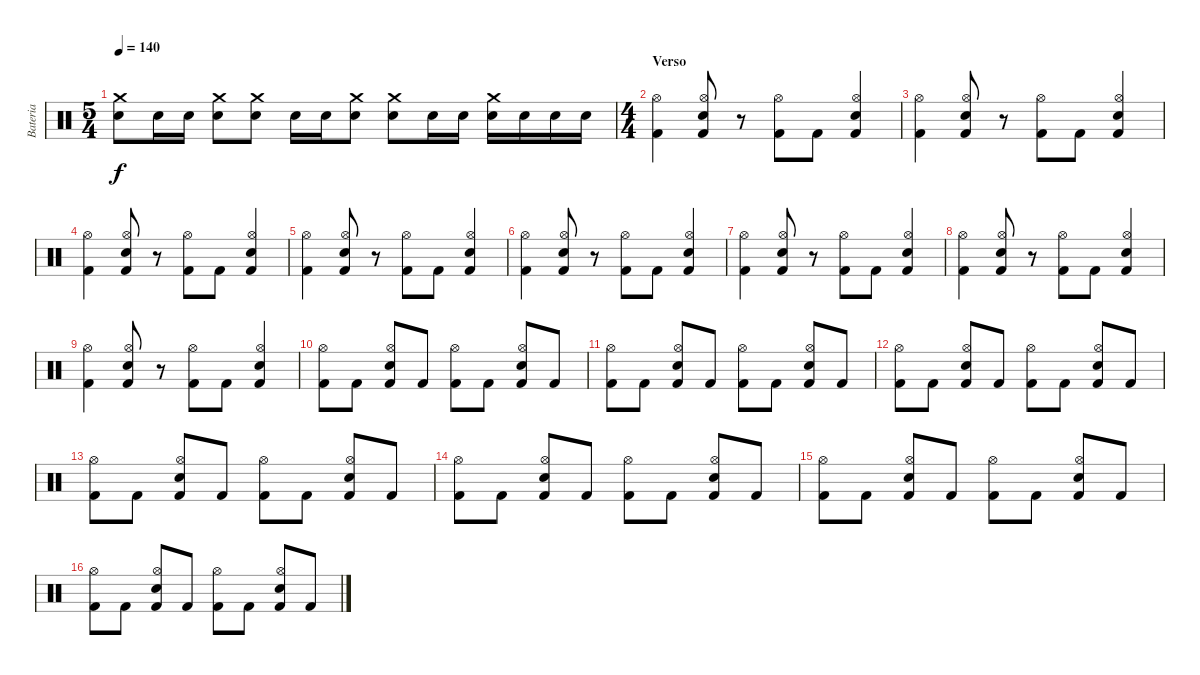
\track ("Bateria" "Bateria") {instrument percussion}
\staff {score}
\articulation defaults
\ts (5 4)
\tempo 140
\clef neutral
\ks c
("Crash medium (hit)" "Snare (hit) 2").8{dy f} "Snare (hit) 2".16 "Snare (hit) 2".16 ("Snare (hit) 2" "Crash medium (hit)").8 ("Snare (hit) 2" "Crash medium (hit)").8 "Snare (hit) 2".16 "Snare (hit) 2".16 ("Snare (hit) 2" "Crash medium (hit)").8 ("Crash medium (hit)" "Snare (hit) 2").8 "Snare (hit) 2".16 "Snare (hit) 2".16 ("Crash medium (hit)" "Snare (hit) 2").16 "Snare (hit) 2".16 "Snare (hit) 2".16 "Snare (hit) 2".16 |
\ts (4 4)
\section ("" "Verso")
("Hi-Hat (open)" "Kick (hit) 2").4 ("Hi-Hat (open)" "Snare (hit) 2" "Kick (hit) 2").8 r.8 ("Hi-Hat (open)" "Kick (hit) 2").8 "Kick (hit) 2".8 ("Snare (hit) 2" "Hi-Hat (open)" "Kick (hit) 2").4 |
("Hi-Hat (open)" "Kick (hit) 2").4 ("Hi-Hat (open)" "Snare (hit) 2" "Kick (hit) 2").8 r.8 ("Hi-Hat (open)" "Kick (hit) 2").8 "Kick (hit) 2".8 ("Snare (hit) 2" "Hi-Hat (open)" "Kick (hit) 2").4 |
("Hi-Hat (open)" "Kick (hit) 2").4 ("Hi-Hat (open)" "Snare (hit) 2" "Kick (hit) 2").8 r.8 ("Hi-Hat (open)" "Kick (hit) 2").8 "Kick (hit) 2".8 ("Snare (hit) 2" "Hi-Hat (open)" "Kick (hit) 2").4 |
("Hi-Hat (open)" "Kick (hit) 2").4 ("Hi-Hat (open)" "Snare (hit) 2" "Kick (hit) 2").8 r.8 ("Hi-Hat (open)" "Kick (hit) 2").8 "Kick (hit) 2".8 ("Snare (hit) 2" "Hi-Hat (open)" "Kick (hit) 2").4 |
("Hi-Hat (open)" "Kick (hit) 2").4 ("Hi-Hat (open)" "Snare (hit) 2" "Kick (hit) 2").8 r.8 ("Hi-Hat (open)" "Kick (hit) 2").8 "Kick (hit) 2".8 ("Snare (hit) 2" "Hi-Hat (open)" "Kick (hit) 2").4 |
("Hi-Hat (open)" "Kick (hit) 2").4 ("Hi-Hat (open)" "Snare (hit) 2" "Kick (hit) 2").8 r.8 ("Hi-Hat (open)" "Kick (hit) 2").8 "Kick (hit) 2".8 ("Snare (hit) 2" "Hi-Hat (open)" "Kick (hit) 2").4 |
("Hi-Hat (open)" "Kick (hit) 2").4 ("Hi-Hat (open)" "Snare (hit) 2" "Kick (hit) 2").8 r.8 ("Hi-Hat (open)" "Kick (hit) 2").8 "Kick (hit) 2".8 ("Snare (hit) 2" "Hi-Hat (open)" "Kick (hit) 2").4 |
("Hi-Hat (open)" "Kick (hit) 2").4 ("Hi-Hat (open)" "Snare (hit) 2" "Kick (hit) 2").8 r.8 ("Hi-Hat (open)" "Kick (hit) 2").8 "Kick (hit) 2".8 ("Snare (hit) 2" "Hi-Hat (open)" "Kick (hit) 2").4 |
("Hi-Hat (open)" "Kick (hit) 2").8 "Kick (hit) 2".8 ("Hi-Hat (open)" "Snare (hit) 2" "Kick (hit) 2").8 "Kick (hit) 2".8 ("Hi-Hat (open)" "Kick (hit) 2").8 "Kick (hit) 2".8 ("Snare (hit) 2" "Hi-Hat (open)" "Kick (hit) 2").8 "Kick (hit) 2".8 |
("Hi-Hat (open)" "Kick (hit) 2").8 "Kick (hit) 2".8 ("Hi-Hat (open)" "Snare (hit) 2" "Kick (hit) 2").8 "Kick (hit) 2".8 ("Hi-Hat (open)" "Kick (hit) 2").8 "Kick (hit) 2".8 ("Snare (hit) 2" "Hi-Hat (open)" "Kick (hit) 2").8 "Kick (hit) 2".8 |
("Hi-Hat (open)" "Kick (hit) 2").8 "Kick (hit) 2".8 ("Hi-Hat (open)" "Snare (hit) 2" "Kick (hit) 2").8 "Kick (hit) 2".8 ("Hi-Hat (open)" "Kick (hit) 2").8 "Kick (hit) 2".8 ("Snare (hit) 2" "Hi-Hat (open)" "Kick (hit) 2").8 "Kick (hit) 2".8 |
("Hi-Hat (open)" "Kick (hit) 2").8 "Kick (hit) 2".8 ("Hi-Hat (open)" "Snare (hit) 2" "Kick (hit) 2").8 "Kick (hit) 2".8 ("Hi-Hat (open)" "Kick (hit) 2").8 "Kick (hit) 2".8 ("Snare (hit) 2" "Hi-Hat (open)" "Kick (hit) 2").8 "Kick (hit) 2".8 |
("Hi-Hat (open)" "Kick (hit) 2").8 "Kick (hit) 2".8 ("Hi-Hat (open)" "Snare (hit) 2" "Kick (hit) 2").8 "Kick (hit) 2".8 ("Hi-Hat (open)" "Kick (hit) 2").8 "Kick (hit) 2".8 ("Snare (hit) 2" "Hi-Hat (open)" "Kick (hit) 2").8 "Kick (hit) 2".8 |
("Hi-Hat (open)" "Kick (hit) 2").8 "Kick (hit) 2".8 ("Hi-Hat (open)" "Snare (hit) 2" "Kick (hit) 2").8 "Kick (hit) 2".8 ("Hi-Hat (open)" "Kick (hit) 2").8 "Kick (hit) 2".8 ("Snare (hit) 2" "Hi-Hat (open)" "Kick (hit) 2").8 "Kick (hit) 2".8 |
("Hi-Hat (open)" "Kick (hit) 2").8 "Kick (hit) 2".8 ("Hi-Hat (open)" "Snare (hit) 2" "Kick (hit) 2").8 "Kick (hit) 2".8 ("Hi-Hat (open)" "Kick (hit) 2").8 "Kick (hit) 2".8 ("Snare (hit) 2" "Hi-Hat (open)" "Kick (hit) 2").8 "Kick (hit) 2".8
